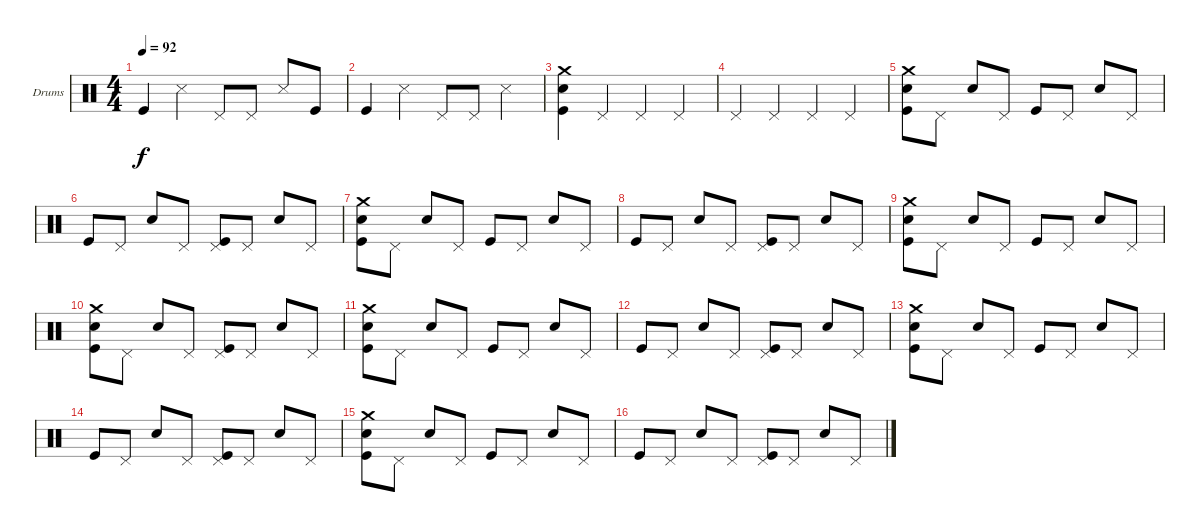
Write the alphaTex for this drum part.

\defaultSystemsLayout 4
\bracketExtendMode groupsimilarinstruments
\firstSystemTrackNameOrientation horizontal
\otherSystemsTrackNameOrientation horizontal
\track ("Е. Кулаков" "Drums") {instrument percussion}
\staff {score}
\articulation defaults
\ts (4 4)
\tempo 92
\clef neutral
\ks c "Kick (hit)".4{dy f} "Snare (side stick) 3".4 "Pedal Hi-Hat (hit)".8 "Pedal Hi-Hat (hit)".8 "Snare (side stick) 3".8 "Kick (hit)".8
|
"Kick (hit)".4 "Snare (side stick) 3".4 "Pedal Hi-Hat (hit)".8 "Pedal Hi-Hat (hit)".8 "Snare (side stick) 3".4 |
("Kick (hit)" "Snare (hit) 2" "Crash medium (hit)").4 "Pedal Hi-Hat (hit)".4 "Pedal Hi-Hat (hit)".4 "Pedal Hi-Hat (hit)".4 |
"Pedal Hi-Hat (hit)".4 "Pedal Hi-Hat (hit)".4 "Pedal Hi-Hat (hit)".4 "Pedal Hi-Hat (hit)".4 |
("Kick (hit)" "Snare (hit) 2" "Crash medium (hit)").8 "Pedal Hi-Hat (hit)".8 "Snare (hit) 2".8 "Pedal Hi-Hat (hit)".8 "Kick (hit)".8 "Pedal Hi-Hat (hit)".8 "Snare (hit) 2".8 "Pedal Hi-Hat (hit)".8 |
"Kick (hit)".8 "Pedal Hi-Hat (hit)".8 "Snare (hit) 2".8 "Pedal Hi-Hat (hit)".8 ("Pedal Hi-Hat (hit)" "Kick (hit)").8 "Pedal Hi-Hat (hit)".8 "Snare (hit) 2".8 "Pedal Hi-Hat (hit)".8 |
("Kick (hit)" "Snare (hit) 2" "Crash medium (hit)").8 "Pedal Hi-Hat (hit)".8 "Snare (hit) 2".8 "Pedal Hi-Hat (hit)".8 "Kick (hit)".8 "Pedal Hi-Hat (hit)".8 "Snare (hit) 2".8 "Pedal Hi-Hat (hit)".8 |
"Kick (hit)".8 "Pedal Hi-Hat (hit)".8 "Snare (hit) 2".8 "Pedal Hi-Hat (hit)".8 ("Pedal Hi-Hat (hit)" "Kick (hit)").8 "Pedal Hi-Hat (hit)".8 "Snare (hit) 2".8 "Pedal Hi-Hat (hit)".8 |
("Kick (hit)" "Snare (hit) 2" "Crash medium (hit)").8 "Pedal Hi-Hat (hit)".8 "Snare (hit) 2".8 "Pedal Hi-Hat (hit)".8 "Kick (hit)".8 "Pedal Hi-Hat (hit)".8 "Snare (hit) 2".8 "Pedal Hi-Hat (hit)".8 |
("Kick (hit)" "Snare (hit) 2" "Crash medium (hit)").8 "Pedal Hi-Hat (hit)".8 "Snare (hit) 2".8 "Pedal Hi-Hat (hit)".8 ("Pedal Hi-Hat (hit)" "Kick (hit)").8 "Pedal Hi-Hat (hit)".8 "Snare (hit) 2".8 "Pedal Hi-Hat (hit)".8 |
("Kick (hit)" "Snare (hit) 2" "Crash medium (hit)").8 "Pedal Hi-Hat (hit)".8 "Snare (hit) 2".8 "Pedal Hi-Hat (hit)".8 "Kick (hit)".8 "Pedal Hi-Hat (hit)".8 "Snare (hit) 2".8 "Pedal Hi-Hat (hit)".8 |
"Kick (hit)".8 "Pedal Hi-Hat (hit)".8 "Snare (hit) 2".8 "Pedal Hi-Hat (hit)".8 ("Pedal Hi-Hat (hit)" "Kick (hit)").8 "Pedal Hi-Hat (hit)".8 "Snare (hit) 2".8 "Pedal Hi-Hat (hit)".8 |
("Kick (hit)" "Snare (hit) 2" "Crash medium (hit)").8 "Pedal Hi-Hat (hit)".8 "Snare (hit) 2".8 "Pedal Hi-Hat (hit)".8 "Kick (hit)".8 "Pedal Hi-Hat (hit)".8 "Snare (hit) 2".8 "Pedal Hi-Hat (hit)".8 |
"Kick (hit)".8 "Pedal Hi-Hat (hit)".8 "Snare (hit) 2".8 "Pedal Hi-Hat (hit)".8 ("Pedal Hi-Hat (hit)" "Kick (hit)").8 "Pedal Hi-Hat (hit)".8 "Snare (hit) 2".8 "Pedal Hi-Hat (hit)".8 |
("Kick (hit)" "Snare (hit) 2" "Crash medium (hit)").8 "Pedal Hi-Hat (hit)".8 "Snare (hit) 2".8 "Pedal Hi-Hat (hit)".8 "Kick (hit)".8 "Pedal Hi-Hat (hit)".8 "Snare (hit) 2".8 "Pedal Hi-Hat (hit)".8 |
"Kick (hit)".8 "Pedal Hi-Hat (hit)".8 "Snare (hit) 2".8 "Pedal Hi-Hat (hit)".8 ("Pedal Hi-Hat (hit)" "Kick (hit)").8 "Pedal Hi-Hat (hit)".8 "Snare (hit) 2".8 "Pedal Hi-Hat (hit)".8
